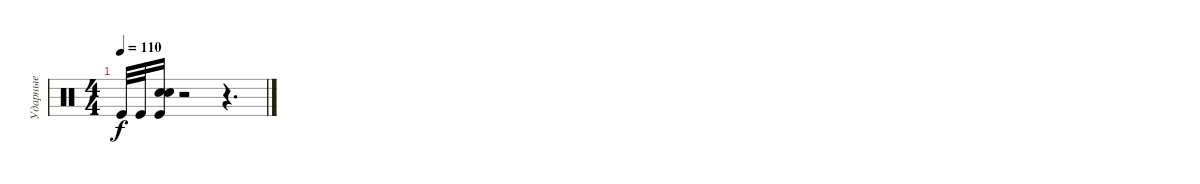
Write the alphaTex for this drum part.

\track ("Ударные" "Ударные") {instrument percussion}
\staff {score}
\articulation defaults
\ts (4 4)
\tempo 110
\clef neutral
\ks c "Kick (hit)".32{dy f} "Kick (hit)".32
("Electric Snare (hit)" "Electric Snare (hit)" "Kick (hit)").16 r.2 r.4{d}
